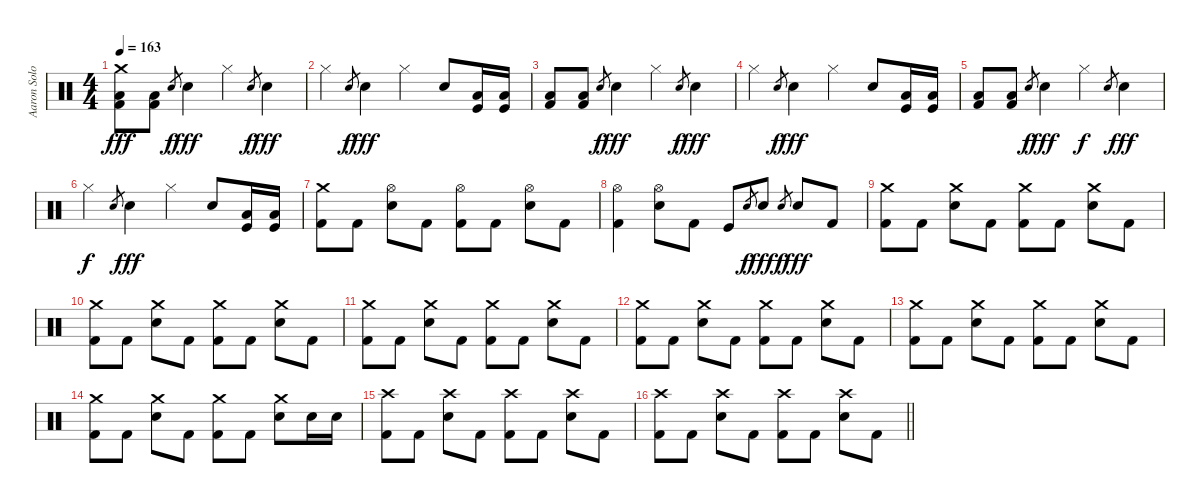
\track ("Aaron Solowoniuk - Schlagzeug" "Aaron Solo") {instrument percussion}
\staff {score}
\articulation defaults
\ts (4 4)
\tempo 163
\clef neutral
\ks c
("Crash medium (hit)" "Low Floor Tom (hit)" "Kick (hit) 2").8{dy fff} ("Low Floor Tom (hit)" "Kick (hit) 2").8 "Electric Snare (hit)".8{gr dy f} "Electric Snare (hit)".4{dy fff} "Hi-Hat (closed)".4 "Electric Snare (hit)".8{gr dy f} "Electric Snare (hit)".4{dy fff} |
"Hi-Hat (closed)".4 "Electric Snare (hit)".8{gr dy f} "Electric Snare (hit)".4{dy fff} "Hi-Hat (closed)".4 "Electric Snare (hit)".8 ("Kick (hit)" "Low Floor Tom (hit)").16 ("Kick (hit)" "Low Floor Tom (hit)").16 |
("Low Floor Tom (hit)" "Kick (hit) 2").8 ("Low Floor Tom (hit)" "Kick (hit) 2").8 "Electric Snare (hit)".8{gr dy f} "Electric Snare (hit)".4{dy fff} "Hi-Hat (closed)".4 "Electric Snare (hit)".8{gr dy f} "Electric Snare (hit)".4{dy fff} |
"Hi-Hat (closed)".4 "Electric Snare (hit)".8{gr dy f} "Electric Snare (hit)".4{dy fff} "Hi-Hat (closed)".4 "Electric Snare (hit)".8 ("Kick (hit)" "Low Floor Tom (hit)").16 ("Kick (hit)" "Low Floor Tom (hit)").16 |
("Low Floor Tom (hit)" "Kick (hit) 2").8 ("Low Floor Tom (hit)" "Kick (hit) 2").8 "Electric Snare (hit)".8{gr dy f} "Electric Snare (hit)".4{dy fff} "Hi-Hat (closed)".4{dy f} "Electric Snare (hit)".8{gr} "Electric Snare (hit)".4{dy fff} |
"Hi-Hat (closed)".4{dy f} "Electric Snare (hit)".8{gr} "Electric Snare (hit)".4{dy fff} "Hi-Hat (closed)".4 "Electric Snare (hit)".8 ("Kick (hit)" "Low Floor Tom (hit)").16 ("Kick (hit)" "Low Floor Tom (hit)").16 |
("Crash medium (hit)" "Kick (hit) 2").8 "Kick (hit) 2".8 ("Hi-Hat (open)" "Electric Snare (hit)").8 "Kick (hit) 2".8 ("Hi-Hat (open)" "Kick (hit) 2").8 "Kick (hit) 2".8 ("Hi-Hat (open)" "Electric Snare (hit)").8 "Kick (hit) 2".8 |
("Hi-Hat (open)" "Kick (hit) 2").4 ("Hi-Hat (open)" "Electric Snare (hit)").8 "Kick (hit) 2".8 "Kick (hit)".8 "Electric Snare (hit)".8{gr dy f} "Electric Snare (hit)".8{dy fff} "Electric Snare (hit)".8{gr dy f} "Electric Snare (hit)".8{dy fff} "Kick (hit) 2".8 |
("Crash medium (hit)" "Kick (hit) 2").8 "Kick (hit) 2".8 ("Crash medium (hit)" "Electric Snare (hit)").8 "Kick (hit) 2".8 ("Crash medium (hit)" "Kick (hit) 2").8 "Kick (hit) 2".8 ("Crash medium (hit)" "Electric Snare (hit)").8 "Kick (hit) 2".8 |
("Crash medium (hit)" "Kick (hit) 2").8 "Kick (hit) 2".8 ("Crash medium (hit)" "Electric Snare (hit)").8 "Kick (hit) 2".8 ("Crash medium (hit)" "Kick (hit) 2").8 "Kick (hit) 2".8 ("Crash medium (hit)" "Electric Snare (hit)").8 "Kick (hit) 2".8 |
("Crash medium (hit)" "Kick (hit) 2").8 "Kick (hit) 2".8 ("Crash medium (hit)" "Electric Snare (hit)").8 "Kick (hit) 2".8 ("Crash medium (hit)" "Kick (hit) 2").8 "Kick (hit) 2".8 ("Crash medium (hit)" "Electric Snare (hit)").8 "Kick (hit) 2".8 |
("Crash medium (hit)" "Kick (hit) 2").8 "Kick (hit) 2".8 ("Crash medium (hit)" "Electric Snare (hit)").8 "Kick (hit) 2".8 ("Crash medium (hit)" "Kick (hit) 2").8 "Kick (hit) 2".8 ("Crash medium (hit)" "Electric Snare (hit)").8 "Kick (hit) 2".8 |
("Crash medium (hit)" "Kick (hit) 2").8 "Kick (hit) 2".8 ("Crash medium (hit)" "Electric Snare (hit)").8 "Kick (hit) 2".8 ("Crash medium (hit)" "Kick (hit) 2").8 "Kick (hit) 2".8 ("Crash medium (hit)" "Electric Snare (hit)").8 "Kick (hit) 2".8 |
("Crash medium (hit)" "Kick (hit) 2").8 "Kick (hit) 2".8 ("Crash medium (hit)" "Electric Snare (hit)").8 "Kick (hit) 2".8 ("Crash medium (hit)" "Kick (hit) 2").8 "Kick (hit) 2".8 ("Crash medium (hit)" "Electric Snare (hit)").8 "Electric Snare (hit)".16 "Electric Snare (hit)".16 |
("Crash high (hit)" "Kick (hit) 2").8 "Kick (hit) 2".8 ("Crash high (hit)" "Electric Snare (hit)").8 "Kick (hit) 2".8 ("Crash high (hit)" "Kick (hit) 2").8 "Kick (hit) 2".8 ("Crash high (hit)" "Electric Snare (hit)").8 "Kick (hit) 2".8 |
\barLineRight lightlight
("Crash high (hit)" "Kick (hit) 2").8 "Kick (hit) 2".8 ("Crash high (hit)" "Electric Snare (hit)").8 "Kick (hit) 2".8 ("Crash high (hit)" "Kick (hit) 2").8 "Kick (hit) 2".8 ("Crash high (hit)" "Electric Snare (hit)").8 "Kick (hit) 2".8
